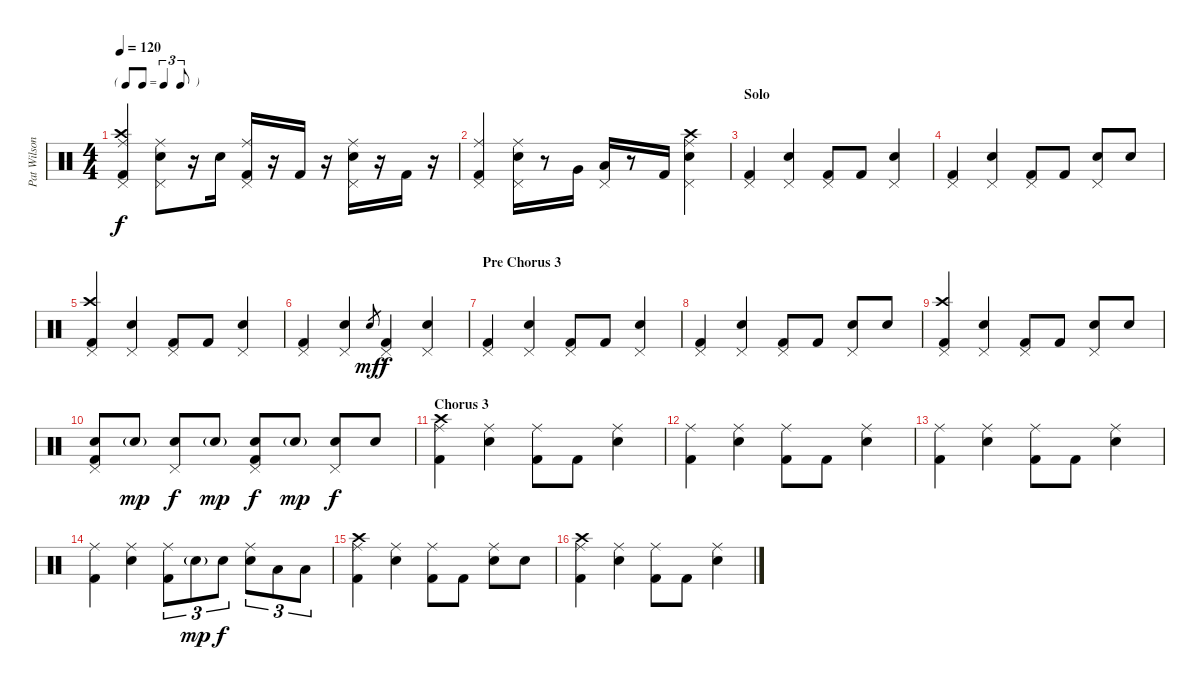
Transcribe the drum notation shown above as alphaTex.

\track ("Pat Wilson - Drums" "Pat Wilson") {instrument percussion}
\staff {score}
\articulation defaults
\ts (4 4)
\tf triplet8th
\tempo 120
\clef neutral
\ks c
("Ride (middle)" "Kick (hit) 2" "Crash high (hit)" "Pedal Hi-Hat (hit)").4{dy f} ("Ride (middle)" "Electric Snare (hit)" "Pedal Hi-Hat (hit)").8 r.16 "Electric Snare (hit)".16 ("Ride (middle)" "Kick (hit) 2" "Pedal Hi-Hat (hit)").16 r.16 "Kick (hit) 2".16 r.16 ("Ride (middle)" "Electric Snare (hit)" "Pedal Hi-Hat (hit)").16 r.16 "Kick (hit) 2".16 r.16 |
("Ride (middle)" "Kick (hit) 2" "Pedal Hi-Hat (hit)").4 ("Ride (middle)" "Electric Snare (hit)" "Pedal Hi-Hat (hit)").16 r.8 "Very Low Tom (hit)".16 ("Low Tom (hit)" "Pedal Hi-Hat (hit)").16 r.8 "Kick (hit) 2".16 ("Ride (middle)" "Electric Snare (hit)" "Crash high (hit)" "Pedal Hi-Hat (hit)").4 |
\section ("" "Solo")
("Pedal Hi-Hat (hit)" "Kick (hit) 2").4 ("Pedal Hi-Hat (hit)" "Electric Snare (hit)").4 ("Pedal Hi-Hat (hit)" "Kick (hit) 2").8 "Kick (hit) 2".8 ("Pedal Hi-Hat (hit)" "Electric Snare (hit)").4 |
("Pedal Hi-Hat (hit)" "Kick (hit) 2").4 ("Pedal Hi-Hat (hit)" "Electric Snare (hit)").4 ("Pedal Hi-Hat (hit)" "Kick (hit) 2").8 "Kick (hit) 2".8 ("Pedal Hi-Hat (hit)" "Electric Snare (hit)").8 "Electric Snare (hit)".8 |
("Pedal Hi-Hat (hit)" "Kick (hit) 2" "Crash high (hit)").4 ("Pedal Hi-Hat (hit)" "Electric Snare (hit)").4 ("Pedal Hi-Hat (hit)" "Kick (hit) 2").8 "Kick (hit) 2".8 ("Pedal Hi-Hat (hit)" "Electric Snare (hit)").4 |
("Pedal Hi-Hat (hit)" "Kick (hit) 2").4 ("Pedal Hi-Hat (hit)" "Electric Snare (hit)").4 "Electric Snare (hit)".8{gr dy mf} ("Pedal Hi-Hat (hit)" "Kick (hit) 2").4{dy f} ("Pedal Hi-Hat (hit)" "Electric Snare (hit)").4 |
\section ("" "Pre Chorus 3")
("Pedal Hi-Hat (hit)" "Kick (hit) 2").4 ("Pedal Hi-Hat (hit)" "Electric Snare (hit)").4 ("Pedal Hi-Hat (hit)" "Kick (hit) 2").8 "Kick (hit) 2".8 ("Pedal Hi-Hat (hit)" "Electric Snare (hit)").4 |
("Pedal Hi-Hat (hit)" "Kick (hit) 2").4 ("Pedal Hi-Hat (hit)" "Electric Snare (hit)").4 ("Pedal Hi-Hat (hit)" "Kick (hit) 2").8 "Kick (hit) 2".8 ("Pedal Hi-Hat (hit)" "Electric Snare (hit)").8 "Electric Snare (hit)".8 |
("Pedal Hi-Hat (hit)" "Kick (hit) 2" "Crash high (hit)").4 ("Pedal Hi-Hat (hit)" "Electric Snare (hit)").4 ("Pedal Hi-Hat (hit)" "Kick (hit) 2").8 "Kick (hit) 2".8 ("Pedal Hi-Hat (hit)" "Electric Snare (hit)").8 "Electric Snare (hit)".8 |
("Pedal Hi-Hat (hit)" "Kick (hit) 2" "Electric Snare (hit)").8 "Electric Snare (hit)"{g}.8{dy mp} ("Pedal Hi-Hat (hit)" "Electric Snare (hit)").8{dy f} "Electric Snare (hit)"{g}.8{dy mp} ("Pedal Hi-Hat (hit)" "Kick (hit) 2" "Electric Snare (hit)").8{dy f} "Electric Snare (hit)"{g}.8{dy mp} ("Pedal Hi-Hat (hit)" "Electric Snare (hit)").8{dy f} "Electric Snare (hit)".8 |
\section ("" "Chorus 3")
("Ride (middle)" "Kick (hit) 2" "Crash high (hit)").4 ("Ride (middle)" "Electric Snare (hit)").4 ("Ride (middle)" "Kick (hit) 2").8 "Kick (hit) 2".8 ("Ride (middle)" "Electric Snare (hit)").4 |
("Ride (middle)" "Kick (hit) 2").4 ("Ride (middle)" "Electric Snare (hit)").4 ("Ride (middle)" "Kick (hit) 2").8 "Kick (hit) 2".8 ("Ride (middle)" "Electric Snare (hit)").4 |
("Ride (middle)" "Kick (hit) 2").4 ("Ride (middle)" "Electric Snare (hit)").4 ("Ride (middle)" "Kick (hit) 2").8 "Kick (hit) 2".8 ("Ride (middle)" "Electric Snare (hit)").4 |
("Ride (middle)" "Kick (hit) 2").4 ("Ride (middle)" "Electric Snare (hit)").4 ("Ride (middle)" "Kick (hit) 2").8{tu (3 2)} "Electric Snare (hit)"{g}.8{tu (3 2) dy mp} "Electric Snare (hit)".8{tu (3 2) dy f} ("Ride (middle)" "Electric Snare (hit)").8{tu (3 2)} "Low Tom (hit)".8{tu (3 2)} "Low Tom (hit)".8{tu (3 2)} |
("Ride (middle)" "Kick (hit) 2" "Crash high (hit)").4 ("Ride (middle)" "Electric Snare (hit)").4 ("Ride (middle)" "Kick (hit) 2").8 "Kick (hit) 2".8 ("Ride (middle)" "Electric Snare (hit)").8 "Electric Snare (hit)".8 |
("Ride (middle)" "Kick (hit) 2" "Crash high (hit)").4 ("Ride (middle)" "Electric Snare (hit)").4 ("Ride (middle)" "Kick (hit) 2").8 "Kick (hit) 2".8 ("Ride (middle)" "Electric Snare (hit)").4
